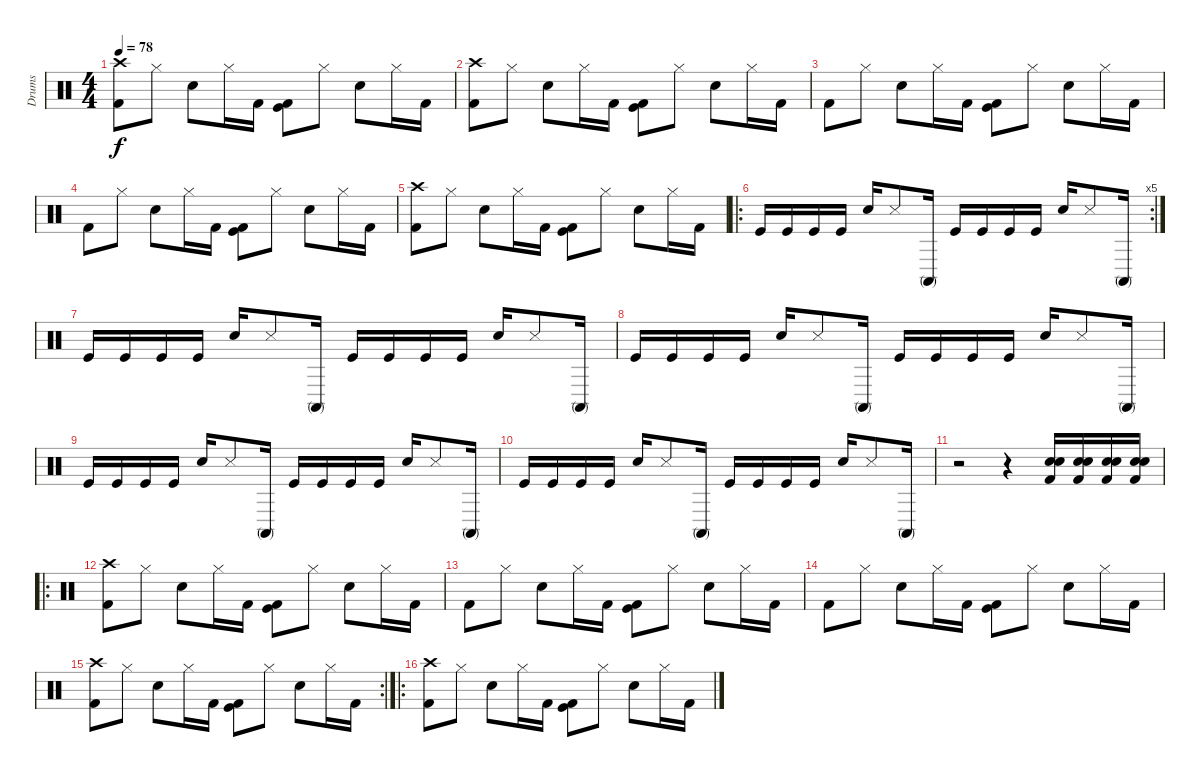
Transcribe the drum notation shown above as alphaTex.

\track ("Drums" "Drums") {instrument percussion}
\staff {score}
\articulation defaults
\ts (4 4)
\tempo 78
\clef neutral
\ks c
("Kick (hit) 2" "Crash high (hit)").8{dy f} "Hi-Hat (closed)".8 "Snare (hit) 2".8 "Hi-Hat (closed)".16 "Kick (hit) 2".16 ("Kick (hit) 2" "Kick (hit)").8 "Hi-Hat (closed)".8 "Snare (hit) 2".8 "Hi-Hat (closed)".16 "Kick (hit) 2".16 |
("Kick (hit) 2" "Crash high (hit)").8 "Hi-Hat (closed)".8 "Snare (hit) 2".8 "Hi-Hat (closed)".16 "Kick (hit) 2".16 ("Kick (hit) 2" "Kick (hit)").8 "Hi-Hat (closed)".8 "Snare (hit) 2".8 "Hi-Hat (closed)".16 "Kick (hit) 2".16 |
"Kick (hit) 2".8 "Hi-Hat (closed)".8 "Snare (hit) 2".8 "Hi-Hat (closed)".16 "Kick (hit) 2".16 ("Kick (hit) 2" "Kick (hit)").8 "Hi-Hat (closed)".8 "Snare (hit) 2".8 "Hi-Hat (closed)".16 "Kick (hit) 2".16 |
"Kick (hit) 2".8 "Hi-Hat (closed)".8 "Snare (hit) 2".8 "Hi-Hat (closed)".16 "Kick (hit) 2".16 ("Kick (hit) 2" "Kick (hit)").8 "Hi-Hat (closed)".8 "Snare (hit) 2".8 "Hi-Hat (closed)".16 "Kick (hit) 2".16 |
("Kick (hit) 2" "Crash high (hit)").8 "Hi-Hat (closed)".8 "Snare (hit) 2".8 "Hi-Hat (closed)".16 "Kick (hit) 2".16 ("Kick (hit) 2" "Kick (hit)").8 "Hi-Hat (closed)".8 "Snare (hit) 2".8 "Hi-Hat (closed)".16 "Kick (hit) 2".16 |
\ro
\rc 5 "Kick (hit)".16 "Kick (hit)".16 "Kick (hit)".16 "Kick (hit)".16 "Electric Snare (hit)".16 "Snare (side stick) 3".8 "Conga high (mute)".16 "Kick (hit)".16 "Kick (hit)".16 "Kick (hit)".16 "Kick (hit)".16 "Electric Snare (hit)".16 "Snare (side stick) 3".8 "Conga high (mute)".16
|
"Kick (hit)".16 "Kick (hit)".16 "Kick (hit)".16 "Kick (hit)".16 "Electric Snare (hit)".16 "Snare (side stick) 3".8 "Conga high (mute)".16 "Kick (hit)".16 "Kick (hit)".16 "Kick (hit)".16 "Kick (hit)".16 "Electric Snare (hit)".16 "Snare (side stick) 3".8 "Conga high (mute)".16 |
"Kick (hit)".16 "Kick (hit)".16 "Kick (hit)".16 "Kick (hit)".16 "Electric Snare (hit)".16 "Snare (side stick) 3".8 "Conga high (mute)".16 "Kick (hit)".16 "Kick (hit)".16 "Kick (hit)".16 "Kick (hit)".16 "Electric Snare (hit)".16 "Snare (side stick) 3".8 "Conga high (mute)".16 |
"Kick (hit)".16 "Kick (hit)".16 "Kick (hit)".16 "Kick (hit)".16 "Electric Snare (hit)".16 "Snare (side stick) 3".8 "Conga high (mute)".16 "Kick (hit)".16 "Kick (hit)".16 "Kick (hit)".16 "Kick (hit)".16 "Electric Snare (hit)".16 "Snare (side stick) 3".8 "Conga high (mute)".16 |
"Kick (hit)".16 "Kick (hit)".16 "Kick (hit)".16 "Kick (hit)".16 "Electric Snare (hit)".16 "Snare (side stick) 3".8 "Conga high (mute)".16 "Kick (hit)".16 "Kick (hit)".16 "Kick (hit)".16 "Kick (hit)".16 "Electric Snare (hit)".16 "Snare (side stick) 3".8 "Conga high (mute)".16 |
r.2 r.4 ("Electric Snare (hit)" "Kick (hit) 2" "Snare (hit) 2").16 ("Electric Snare (hit)" "Kick (hit) 2" "Snare (hit) 2").16 ("Electric Snare (hit)" "Kick (hit) 2" "Snare (hit) 2").16 ("Electric Snare (hit)" "Kick (hit) 2" "Snare (hit) 2").16 |
\ro
("Kick (hit) 2" "Crash high (hit)").8 "Hi-Hat (closed)".8 "Snare (hit) 2".8 "Hi-Hat (closed)".16 "Kick (hit) 2".16 ("Kick (hit) 2" "Kick (hit)").8 "Hi-Hat (closed)".8 "Snare (hit) 2".8 "Hi-Hat (closed)".16 "Kick (hit) 2".16 |
"Kick (hit) 2".8 "Hi-Hat (closed)".8 "Snare (hit) 2".8 "Hi-Hat (closed)".16 "Kick (hit) 2".16 ("Kick (hit) 2" "Kick (hit)").8 "Hi-Hat (closed)".8 "Snare (hit) 2".8 "Hi-Hat (closed)".16 "Kick (hit) 2".16 |
"Kick (hit) 2".8 "Hi-Hat (closed)".8 "Snare (hit) 2".8 "Hi-Hat (closed)".16 "Kick (hit) 2".16 ("Kick (hit) 2" "Kick (hit)").8 "Hi-Hat (closed)".8 "Snare (hit) 2".8 "Hi-Hat (closed)".16 "Kick (hit) 2".16 |
\rc 2
("Kick (hit) 2" "Crash high (hit)").8 "Hi-Hat (closed)".8 "Snare (hit) 2".8 "Hi-Hat (closed)".16 "Kick (hit) 2".16 ("Kick (hit) 2" "Kick (hit)").8 "Hi-Hat (closed)".8 "Snare (hit) 2".8 "Hi-Hat (closed)".16 "Kick (hit) 2".16 |
\ro
("Kick (hit) 2" "Crash high (hit)").8 "Hi-Hat (closed)".8 "Snare (hit) 2".8 "Hi-Hat (closed)".16 "Kick (hit) 2".16 ("Kick (hit) 2" "Kick (hit)").8 "Hi-Hat (closed)".8 "Snare (hit) 2".8 "Hi-Hat (closed)".16 "Kick (hit) 2".16
